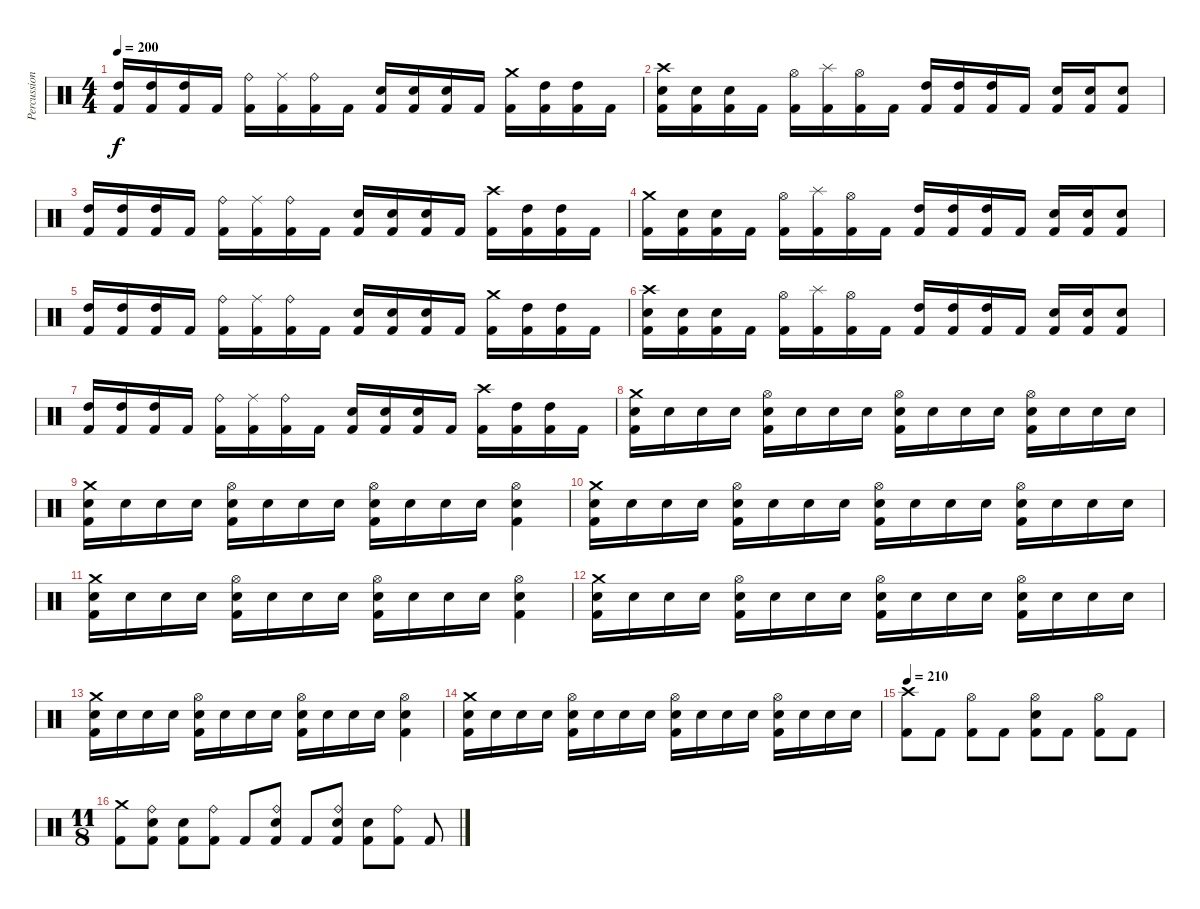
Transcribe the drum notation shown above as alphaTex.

\track ("Percussions" "Percussion") {instrument percussion}
\staff {score}
\articulation defaults
\ts (4 4)
\tempo 200
\clef neutral
\ks c
("High Tom (hit)" "Kick (hit) 2").16{dy f} ("High Tom (hit)" "Kick (hit) 2").16 ("High Tom (hit)" "Kick (hit) 2").16 "Kick (hit) 2".16 ("Ride (bell)" "Kick (hit) 2").16 ("Ride (middle)" "Kick (hit) 2").16 ("Ride (bell)" "Kick (hit) 2").16 "Kick (hit) 2".16 ("Electric Snare (hit)" "Kick (hit) 2").16 ("Electric Snare (hit)" "Kick (hit) 2").16 ("Electric Snare (hit)" "Kick (hit) 2").16 "Kick (hit) 2".16 ("Crash medium (hit)" "Kick (hit) 2").16 ("High Tom (hit)" "Kick (hit) 2").16 ("High Tom (hit)" "Kick (hit) 2").16 "Kick (hit) 2".16 |
("Crash high (hit)" "Electric Snare (hit)" "Kick (hit) 2").16 ("Electric Snare (hit)" "Kick (hit) 2").16 ("Electric Snare (hit)" "Kick (hit) 2").16 "Kick (hit) 2".16 ("Hi-Hat (open)" "Kick (hit) 2").16 ("Splash (hit)" "Kick (hit) 2").16 ("Hi-Hat (open)" "Kick (hit) 2").16 "Kick (hit) 2".16 ("High Tom (hit)" "Kick (hit) 2").16 ("High Tom (hit)" "Kick (hit) 2").16 ("High Tom (hit)" "Kick (hit) 2").16 "Kick (hit) 2".16 ("Electric Snare (hit)" "Kick (hit) 2").16 ("Electric Snare (hit)" "Kick (hit) 2").16 ("Electric Snare (hit)" "Kick (hit) 2").8 |
("High Tom (hit)" "Kick (hit) 2").16 ("High Tom (hit)" "Kick (hit) 2").16 ("High Tom (hit)" "Kick (hit) 2").16 "Kick (hit) 2".16 ("Ride (bell)" "Kick (hit) 2").16 ("Ride (middle)" "Kick (hit) 2").16 ("Ride (bell)" "Kick (hit) 2").16 "Kick (hit) 2".16 ("Electric Snare (hit)" "Kick (hit) 2").16 ("Electric Snare (hit)" "Kick (hit) 2").16 ("Electric Snare (hit)" "Kick (hit) 2").16 "Kick (hit) 2".16 ("Crash high (hit)" "Kick (hit) 2").16 ("High Tom (hit)" "Kick (hit) 2").16 ("High Tom (hit)" "Kick (hit) 2").16 "Kick (hit) 2".16 |
("Crash medium (hit)" "Kick (hit) 2").16 ("Electric Snare (hit)" "Kick (hit) 2").16 ("Electric Snare (hit)" "Kick (hit) 2").16 "Kick (hit) 2".16 ("Hi-Hat (open)" "Kick (hit) 2").16 ("Splash (hit)" "Kick (hit) 2").16 ("Hi-Hat (open)" "Kick (hit) 2").16 "Kick (hit) 2".16 ("High Tom (hit)" "Kick (hit) 2").16 ("High Tom (hit)" "Kick (hit) 2").16 ("High Tom (hit)" "Kick (hit) 2").16 "Kick (hit) 2".16 ("Electric Snare (hit)" "Kick (hit) 2").16 ("Electric Snare (hit)" "Kick (hit) 2").16 ("Electric Snare (hit)" "Kick (hit) 2").8 |
("High Tom (hit)" "Kick (hit) 2").16 ("High Tom (hit)" "Kick (hit) 2").16 ("High Tom (hit)" "Kick (hit) 2").16 "Kick (hit) 2".16 ("Ride (bell)" "Kick (hit) 2").16 ("Ride (middle)" "Kick (hit) 2").16 ("Ride (bell)" "Kick (hit) 2").16 "Kick (hit) 2".16 ("Electric Snare (hit)" "Kick (hit) 2").16 ("Electric Snare (hit)" "Kick (hit) 2").16 ("Electric Snare (hit)" "Kick (hit) 2").16 "Kick (hit) 2".16 ("Crash medium (hit)" "Kick (hit) 2").16 ("High Tom (hit)" "Kick (hit) 2").16 ("High Tom (hit)" "Kick (hit) 2").16 "Kick (hit) 2".16 |
("Crash high (hit)" "Electric Snare (hit)" "Kick (hit) 2").16 ("Electric Snare (hit)" "Kick (hit) 2").16 ("Electric Snare (hit)" "Kick (hit) 2").16 "Kick (hit) 2".16 ("Hi-Hat (open)" "Kick (hit) 2").16 ("Splash (hit)" "Kick (hit) 2").16 ("Hi-Hat (open)" "Kick (hit) 2").16 "Kick (hit) 2".16 ("High Tom (hit)" "Kick (hit) 2").16 ("High Tom (hit)" "Kick (hit) 2").16 ("High Tom (hit)" "Kick (hit) 2").16 "Kick (hit) 2".16 ("Electric Snare (hit)" "Kick (hit) 2").16 ("Electric Snare (hit)" "Kick (hit) 2").16 ("Electric Snare (hit)" "Kick (hit) 2").8 |
("High Tom (hit)" "Kick (hit) 2").16 ("High Tom (hit)" "Kick (hit) 2").16 ("High Tom (hit)" "Kick (hit) 2").16 "Kick (hit) 2".16 ("Ride (bell)" "Kick (hit) 2").16 ("Ride (middle)" "Kick (hit) 2").16 ("Ride (bell)" "Kick (hit) 2").16 "Kick (hit) 2".16 ("Electric Snare (hit)" "Kick (hit) 2").16 ("Electric Snare (hit)" "Kick (hit) 2").16 ("Electric Snare (hit)" "Kick (hit) 2").16 "Kick (hit) 2".16 ("Crash high (hit)" "Kick (hit) 2").16 ("High Tom (hit)" "Kick (hit) 2").16 ("High Tom (hit)" "Kick (hit) 2").16 "Kick (hit) 2".16 |
("Crash medium (hit)" "Electric Snare (hit)" "Kick (hit) 2").16 "Electric Snare (hit)".16 "Electric Snare (hit)".16 "Electric Snare (hit)".16 ("Hi-Hat (open)" "Electric Snare (hit)" "Kick (hit) 2").16 "Electric Snare (hit)".16 "Electric Snare (hit)".16 "Electric Snare (hit)".16 ("Hi-Hat (open)" "Electric Snare (hit)" "Kick (hit) 2").16 "Electric Snare (hit)".16 "Electric Snare (hit)".16 "Electric Snare (hit)".16 ("Hi-Hat (open)" "Electric Snare (hit)" "Kick (hit) 2").16 "Electric Snare (hit)".16 "Electric Snare (hit)".16 "Electric Snare (hit)".16 |
("Crash medium (hit)" "Electric Snare (hit)" "Kick (hit) 2").16 "Electric Snare (hit)".16 "Electric Snare (hit)".16 "Electric Snare (hit)".16 ("Hi-Hat (open)" "Electric Snare (hit)" "Kick (hit) 2").16 "Electric Snare (hit)".16 "Electric Snare (hit)".16 "Electric Snare (hit)".16 ("Hi-Hat (open)" "Electric Snare (hit)" "Kick (hit) 2").16 "Electric Snare (hit)".16 "Electric Snare (hit)".16 "Electric Snare (hit)".16 ("Hi-Hat (open)" "Electric Snare (hit)" "Kick (hit) 2").4 |
("Crash medium (hit)" "Electric Snare (hit)" "Kick (hit) 2").16 "Electric Snare (hit)".16 "Electric Snare (hit)".16 "Electric Snare (hit)".16 ("Hi-Hat (open)" "Electric Snare (hit)" "Kick (hit) 2").16 "Electric Snare (hit)".16 "Electric Snare (hit)".16 "Electric Snare (hit)".16 ("Hi-Hat (open)" "Electric Snare (hit)" "Kick (hit) 2").16 "Electric Snare (hit)".16 "Electric Snare (hit)".16 "Electric Snare (hit)".16 ("Hi-Hat (open)" "Electric Snare (hit)" "Kick (hit) 2").16 "Electric Snare (hit)".16 "Electric Snare (hit)".16 "Electric Snare (hit)".16 |
("Crash medium (hit)" "Electric Snare (hit)" "Kick (hit) 2").16 "Electric Snare (hit)".16 "Electric Snare (hit)".16 "Electric Snare (hit)".16 ("Hi-Hat (open)" "Electric Snare (hit)" "Kick (hit) 2").16 "Electric Snare (hit)".16 "Electric Snare (hit)".16 "Electric Snare (hit)".16 ("Hi-Hat (open)" "Electric Snare (hit)" "Kick (hit) 2").16 "Electric Snare (hit)".16 "Electric Snare (hit)".16 "Electric Snare (hit)".16 ("Hi-Hat (open)" "Electric Snare (hit)" "Kick (hit) 2").4 |
("Crash medium (hit)" "Electric Snare (hit)" "Kick (hit) 2").16 "Electric Snare (hit)".16 "Electric Snare (hit)".16 "Electric Snare (hit)".16 ("Hi-Hat (open)" "Electric Snare (hit)" "Kick (hit) 2").16 "Electric Snare (hit)".16 "Electric Snare (hit)".16 "Electric Snare (hit)".16 ("Hi-Hat (open)" "Electric Snare (hit)" "Kick (hit) 2").16 "Electric Snare (hit)".16 "Electric Snare (hit)".16 "Electric Snare (hit)".16 ("Hi-Hat (open)" "Electric Snare (hit)" "Kick (hit) 2").16 "Electric Snare (hit)".16 "Electric Snare (hit)".16 "Electric Snare (hit)".16 |
("Crash medium (hit)" "Electric Snare (hit)" "Kick (hit) 2").16 "Electric Snare (hit)".16 "Electric Snare (hit)".16 "Electric Snare (hit)".16 ("Hi-Hat (open)" "Electric Snare (hit)" "Kick (hit) 2").16 "Electric Snare (hit)".16 "Electric Snare (hit)".16 "Electric Snare (hit)".16 ("Hi-Hat (open)" "Electric Snare (hit)" "Kick (hit) 2").16 "Electric Snare (hit)".16 "Electric Snare (hit)".16 "Electric Snare (hit)".16 ("Hi-Hat (open)" "Electric Snare (hit)" "Kick (hit) 2").4 |
("Crash medium (hit)" "Electric Snare (hit)" "Kick (hit) 2").16 "Electric Snare (hit)".16 "Electric Snare (hit)".16 "Electric Snare (hit)".16 ("Hi-Hat (open)" "Electric Snare (hit)" "Kick (hit) 2").16 "Electric Snare (hit)".16 "Electric Snare (hit)".16 "Electric Snare (hit)".16 ("Hi-Hat (open)" "Electric Snare (hit)" "Kick (hit) 2").16 "Electric Snare (hit)".16 "Electric Snare (hit)".16 "Electric Snare (hit)".16 ("Hi-Hat (open)" "Electric Snare (hit)" "Kick (hit) 2").16 "Electric Snare (hit)".16 "Electric Snare (hit)".16 "Electric Snare (hit)".16 |
\tempo 210
("Crash high (hit)" "Kick (hit) 2").8 "Kick (hit) 2".8 ("Hi-Hat (open)" "Kick (hit) 2").8 "Kick (hit) 2".8 ("Hi-Hat (open)" "Electric Snare (hit)" "Kick (hit) 2").8 "Kick (hit) 2".8 ("Hi-Hat (open)" "Kick (hit) 2").8 "Kick (hit) 2".8 |
\ts (11 8)
("Crash medium (hit)" "Kick (hit) 2").8 ("Ride (bell)" "Electric Snare (hit)" "Kick (hit) 2").8 ("Electric Snare (hit)" "Kick (hit) 2").8 ("Ride (bell)" "Kick (hit) 2").8 "Kick (hit) 2".8 ("Ride (bell)" "Electric Snare (hit)" "Kick (hit) 2").8 "Kick (hit) 2".8 ("Ride (bell)" "Electric Snare (hit)" "Kick (hit) 2").8 ("Electric Snare (hit)" "Kick (hit) 2").8 ("Ride (bell)" "Kick (hit) 2").8 "Kick (hit) 2".8
